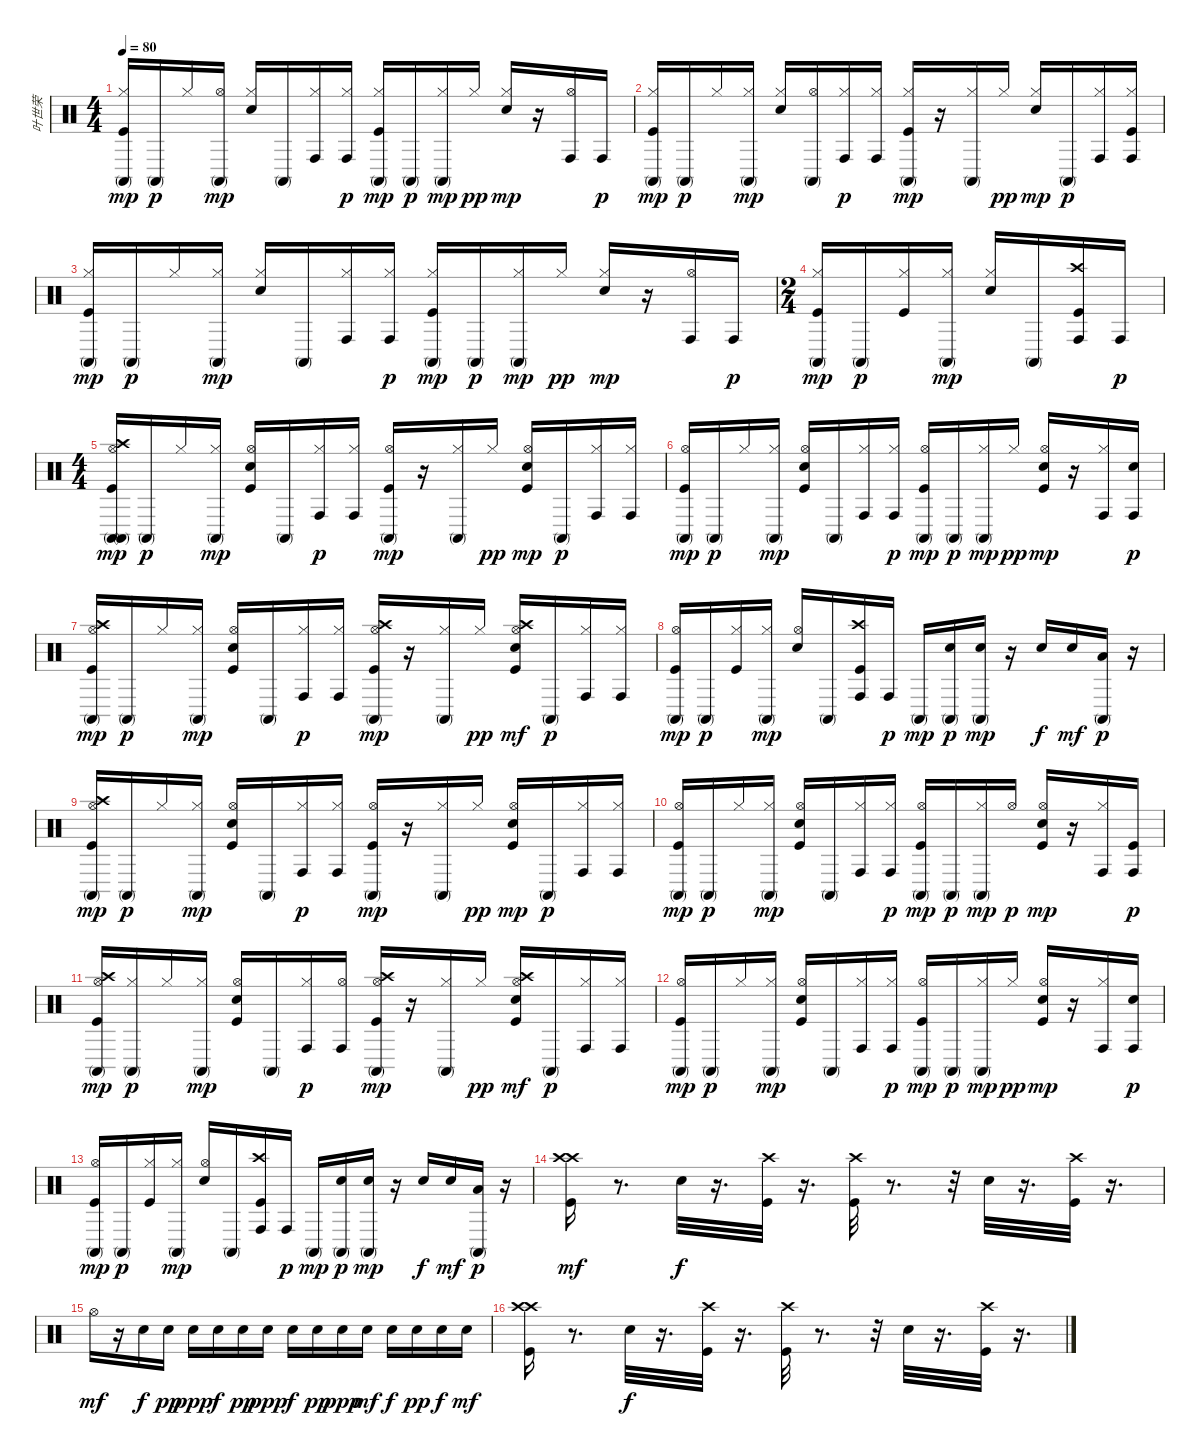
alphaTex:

\track ("叶世荣" "叶世荣") {instrument percussion}
\staff {score}
\articulation defaults
\ts (4 4)
\tempo 80
\clef neutral
\ks c
("Kick (hit)" "Hi-Hat (closed)" "Conga high (mute)").16{dy mp} "Conga high (mute)".16{dy p} "Hi-Hat (closed)".16 ("Hi-Hat (open)" "Conga high (mute)").16{dy mp} ("Snare (hit) 2" "Hi-Hat (closed)").16 "Conga high (mute)".16 ("Hi-Hat (closed)" "Conga high (hit)").16 ("Hi-Hat (closed)" "Conga high (hit)").16{dy p} ("Kick (hit)" "Hi-Hat (closed)" "Conga high (mute)").16{dy mp} "Conga high (mute)".16{dy p} ("Hi-Hat (closed)" "Conga high (mute)").16{dy mp} "Hi-Hat (closed)".16{dy pp} ("Snare (hit) 2" "Hi-Hat (closed)").16{dy mp} r.16 ("Hi-Hat (open)" "Conga high (hit)").16 "Conga high (hit)".16{dy p} |
("Kick (hit)" "Hi-Hat (closed)" "Conga high (mute)").16{dy mp} "Conga high (mute)".16{dy p} "Hi-Hat (closed)".16 ("Hi-Hat (closed)" "Conga high (mute)").16{dy mp} ("Snare (hit) 2" "Hi-Hat (closed)").16 ("Hi-Hat (open)" "Conga high (mute)").16 ("Hi-Hat (closed)" "Conga high (hit)").16{dy p} ("Hi-Hat (closed)" "Conga high (hit)").16 ("Kick (hit)" "Hi-Hat (closed)" "Conga high (mute)").16{dy mp} r.16 ("Hi-Hat (closed)" "Conga high (mute)").16 "Hi-Hat (closed)".16{dy pp} ("Snare (hit) 2" "Hi-Hat (closed)").16{dy mp} "Conga high (mute)".16{dy p} ("Hi-Hat (closed)" "Conga high (hit)").16 ("Kick (hit)" "Hi-Hat (closed)" "Conga high (hit)").16 |
("Kick (hit)" "Hi-Hat (closed)" "Conga high (mute)").16{dy mp} "Conga high (mute)".16{dy p} "Hi-Hat (closed)".16 ("Hi-Hat (closed)" "Conga high (mute)").16{dy mp} ("Snare (hit) 2" "Hi-Hat (closed)").16 "Conga high (mute)".16 ("Hi-Hat (closed)" "Conga high (hit)").16 ("Hi-Hat (closed)" "Conga high (hit)").16{dy p} ("Kick (hit)" "Hi-Hat (closed)" "Conga high (mute)").16{dy mp} "Conga high (mute)".16{dy p} ("Hi-Hat (closed)" "Conga high (mute)").16{dy mp} "Hi-Hat (closed)".16{dy pp} ("Snare (hit) 2" "Hi-Hat (closed)").16{dy mp} r.16 ("Hi-Hat (open)" "Conga high (hit)").16 "Conga high (hit)".16{dy p} |
\ts (2 4)
("Kick (hit)" "Hi-Hat (closed)" "Conga high (mute)").16{dy mp} "Conga high (mute)".16{dy p} ("Kick (hit)" "Hi-Hat (closed)").16 ("Hi-Hat (closed)" "Conga high (mute)").16{dy mp} ("Snare (hit) 2" "Hi-Hat (closed)").16 "Conga high (mute)".16 ("Kick (hit)" "Crash high (hit)" "Conga high (hit)").16 "Conga high (hit)".16{dy p} |
\ts (4 4)
("Kick (hit)" "Hi-Hat (open)" "Crash high (hit)" "Conga high (mute)" "Conga high (mute)").16{dy mp} "Conga high (mute)".16{dy p} "Hi-Hat (closed)".16 ("Hi-Hat (closed)" "Conga high (mute)").16{dy mp} ("Kick (hit)" "Snare (hit) 2" "Hi-Hat (open)").16 "Conga high (mute)".16 ("Hi-Hat (closed)" "Conga high (hit)").16{dy p} ("Hi-Hat (closed)" "Conga high (hit)").16 ("Kick (hit)" "Hi-Hat (open)" "Conga high (mute)").16{dy mp} r.16 ("Hi-Hat (closed)" "Conga high (mute)").16 "Hi-Hat (closed)".16{dy pp} ("Kick (hit)" "Snare (hit) 2" "Hi-Hat (open)").16{dy mp} "Conga high (mute)".16{dy p} ("Hi-Hat (closed)" "Conga high (hit)").16 ("Hi-Hat (closed)" "Conga high (hit)").16 |
("Kick (hit)" "Hi-Hat (open)" "Conga high (mute)").16{dy mp} "Conga high (mute)".16{dy p} "Hi-Hat (closed)".16 ("Hi-Hat (closed)" "Conga high (mute)").16{dy mp} ("Kick (hit)" "Snare (hit) 2" "Hi-Hat (open)").16 "Conga high (mute)".16 ("Hi-Hat (closed)" "Conga high (hit)").16 ("Hi-Hat (closed)" "Conga high (hit)").16{dy p} ("Kick (hit)" "Hi-Hat (open)" "Conga high (mute)").16{dy mp} "Conga high (mute)".16{dy p} ("Hi-Hat (closed)" "Conga high (mute)").16{dy mp} "Hi-Hat (closed)".16{dy pp} ("Kick (hit)" "Snare (hit) 2" "Hi-Hat (open)").16{dy mp} r.16 ("Hi-Hat (closed)" "Conga high (hit)").16 ("Snare (hit) 2" "Conga high (hit)").16{dy p} |
("Kick (hit)" "Hi-Hat (open)" "Crash high (hit)" "Conga high (mute)").16{dy mp} "Conga high (mute)".16{dy p} "Hi-Hat (closed)".16 ("Hi-Hat (closed)" "Conga high (mute)").16{dy mp} ("Kick (hit)" "Snare (hit) 2" "Hi-Hat (open)").16 "Conga high (mute)".16 ("Hi-Hat (closed)" "Conga high (hit)").16{dy p} ("Hi-Hat (closed)" "Conga high (hit)").16 ("Kick (hit)" "Hi-Hat (open)" "Crash high (hit)" "Conga high (mute)").16{dy mp} r.16 ("Hi-Hat (closed)" "Conga high (mute)").16 "Hi-Hat (closed)".16{dy pp} ("Kick (hit)" "Snare (hit) 2" "Hi-Hat (open)" "Crash high (hit)").16{dy mf} "Conga high (mute)".16{dy p} ("Hi-Hat (closed)" "Conga high (hit)").16 ("Hi-Hat (closed)" "Conga high (hit)").16 |
("Kick (hit)" "Hi-Hat (open)" "Conga high (mute)").16{dy mp} "Conga high (mute)".16{dy p} ("Kick (hit)" "Hi-Hat (closed)").16 ("Hi-Hat (closed)" "Conga high (mute)").16{dy mp} ("Snare (hit) 2" "Hi-Hat (open)").16 "Conga high (mute)".16 ("Kick (hit)" "Crash high (hit)" "Conga high (hit)").16 "Conga high (hit)".16{dy p} "Conga high (mute)".16{dy mp} ("Snare (hit) 2" "Conga high (mute)").16{dy p} ("Snare (hit) 2" "Conga high (mute)").16{dy mp} r.16 "Snare (hit) 2".16{dy f} "Snare (hit) 2".16{dy mf} ("Low Tom (hit)" "Conga high (mute)").16{dy p} r.16 |
("Kick (hit)" "Hi-Hat (open)" "Crash high (hit)" "Conga high (mute)").16{dy mp} "Conga high (mute)".16{dy p} "Hi-Hat (closed)".16 ("Hi-Hat (closed)" "Conga high (mute)").16{dy mp} ("Kick (hit)" "Snare (hit) 2" "Hi-Hat (open)").16 "Conga high (mute)".16 ("Hi-Hat (closed)" "Conga high (hit)").16{dy p} ("Hi-Hat (closed)" "Conga high (hit)").16 ("Kick (hit)" "Hi-Hat (open)" "Conga high (mute)").16{dy mp} r.16 ("Hi-Hat (closed)" "Conga high (mute)").16 "Hi-Hat (closed)".16{dy pp} ("Kick (hit)" "Snare (hit) 2" "Hi-Hat (open)").16{dy mp} "Conga high (mute)".16{dy p} ("Hi-Hat (closed)" "Conga high (hit)").16 ("Hi-Hat (closed)" "Conga high (hit)").16 |
("Kick (hit)" "Hi-Hat (open)" "Conga high (mute)").16{dy mp} "Conga high (mute)".16{dy p} "Hi-Hat (closed)".16 ("Hi-Hat (closed)" "Conga high (mute)").16{dy mp} ("Kick (hit)" "Snare (hit) 2" "Hi-Hat (open)").16 "Conga high (mute)".16 ("Hi-Hat (closed)" "Conga high (hit)").16 ("Hi-Hat (closed)" "Conga high (hit)").16{dy p} ("Kick (hit)" "Hi-Hat (open)" "Conga high (mute)").16{dy mp} "Conga high (mute)".16{dy p} ("Hi-Hat (closed)" "Conga high (mute)").16{dy mp} "Hi-Hat (open)".16{dy p} ("Kick (hit)" "Snare (hit) 2" "Hi-Hat (open)").16{dy mp} r.16 ("Hi-Hat (closed)" "Conga high (hit)").16 ("Kick (hit)" "Conga high (hit)").16{dy p} |
("Kick (hit)" "Hi-Hat (open)" "Crash high (hit)" "Conga high (mute)").16{dy mp} ("Hi-Hat (closed)" "Conga high (mute)").16{dy p} "Hi-Hat (closed)".16 ("Hi-Hat (closed)" "Conga high (mute)").16{dy mp} ("Kick (hit)" "Snare (hit) 2" "Hi-Hat (open)").16 "Conga high (mute)".16 ("Hi-Hat (closed)" "Conga high (hit)").16{dy p} ("Hi-Hat (open)" "Conga high (hit)").16 ("Kick (hit)" "Hi-Hat (open)" "Crash high (hit)" "Conga high (mute)").16{dy mp} r.16 ("Hi-Hat (closed)" "Conga high (mute)").16 "Hi-Hat (closed)".16{dy pp} ("Kick (hit)" "Snare (hit) 2" "Hi-Hat (open)" "Crash high (hit)").16{dy mf} "Conga high (mute)".16{dy p} ("Hi-Hat (closed)" "Conga high (hit)").16 ("Hi-Hat (closed)" "Conga high (hit)").16 |
("Kick (hit)" "Hi-Hat (open)" "Conga high (mute)").16{dy mp} "Conga high (mute)".16{dy p} "Hi-Hat (closed)".16 ("Hi-Hat (closed)" "Conga high (mute)").16{dy mp} ("Kick (hit)" "Snare (hit) 2" "Hi-Hat (open)").16 "Conga high (mute)".16 ("Hi-Hat (closed)" "Conga high (hit)").16 ("Hi-Hat (closed)" "Conga high (hit)").16{dy p} ("Kick (hit)" "Hi-Hat (open)" "Conga high (mute)").16{dy mp} "Conga high (mute)".16{dy p} ("Hi-Hat (closed)" "Conga high (mute)").16{dy mp} "Hi-Hat (closed)".16{dy pp} ("Kick (hit)" "Snare (hit) 2" "Hi-Hat (open)").16{dy mp} r.16 ("Hi-Hat (closed)" "Conga high (hit)").16 ("Snare (hit) 2" "Conga high (hit)").16{dy p} |
("Kick (hit)" "Hi-Hat (open)" "Conga high (mute)").16{dy mp} "Conga high (mute)".16{dy p} ("Kick (hit)" "Hi-Hat (closed)").16 ("Hi-Hat (closed)" "Conga high (mute)").16{dy mp} ("Snare (hit) 2" "Hi-Hat (open)").16 "Conga high (mute)".16 ("Kick (hit)" "Crash high (hit)" "Conga high (hit)").16 "Conga high (hit)".16{dy p} "Conga high (mute)".16{dy mp} ("Snare (hit) 2" "Conga high (mute)").16{dy p} ("Snare (hit) 2" "Conga high (mute)").16{dy mp} r.16 "Snare (hit) 2".16{dy f} "Snare (hit) 2".16{dy mf} ("Low Tom (hit)" "Conga high (mute)").16{dy p} r.16 |
("Kick (hit)" "Crash high (hit)" "Crash high (hit)").16{dy mf} r.8{d} "Snare (hit) 2".32{dy f} r.16{d} ("Kick (hit)" "Crash high (hit)").32 r.16{d} ("Kick (hit)" "Crash high (hit)").32 r.8{d} r.32 "Snare (hit) 2".32 r.16{d} ("Kick (hit)" "Crash high (hit)").32 r.16{d} |
"Hi-Hat (open)".16{dy mf} r.16 "Snare (hit) 2".16{dy f} "Snare (hit) 2".16{dy pp} "Snare (hit) 2".16{dy ppp} "Snare (hit) 2".16{dy f} "Snare (hit) 2".16{dy pp} "Snare (hit) 2".16{dy ppp} "Snare (hit) 2".16{dy f} "Snare (hit) 2".16{dy pp} "Snare (hit) 2".16{dy ppp} "Snare (hit) 2".16{dy mf} "Snare (hit) 2".16{dy f} "Snare (hit) 2".16{dy pp} "Snare (hit) 2".16{dy f} "Snare (hit) 2".16{dy mf} |
("Kick (hit)" "Crash high (hit)" "Crash high (hit)").16 r.8{d} "Snare (hit) 2".32{dy f} r.16{d} ("Kick (hit)" "Crash high (hit)").32 r.16{d} ("Kick (hit)" "Crash high (hit)").32 r.8{d} r.32 "Snare (hit) 2".32 r.16{d} ("Kick (hit)" "Crash high (hit)").32 r.16{d}
